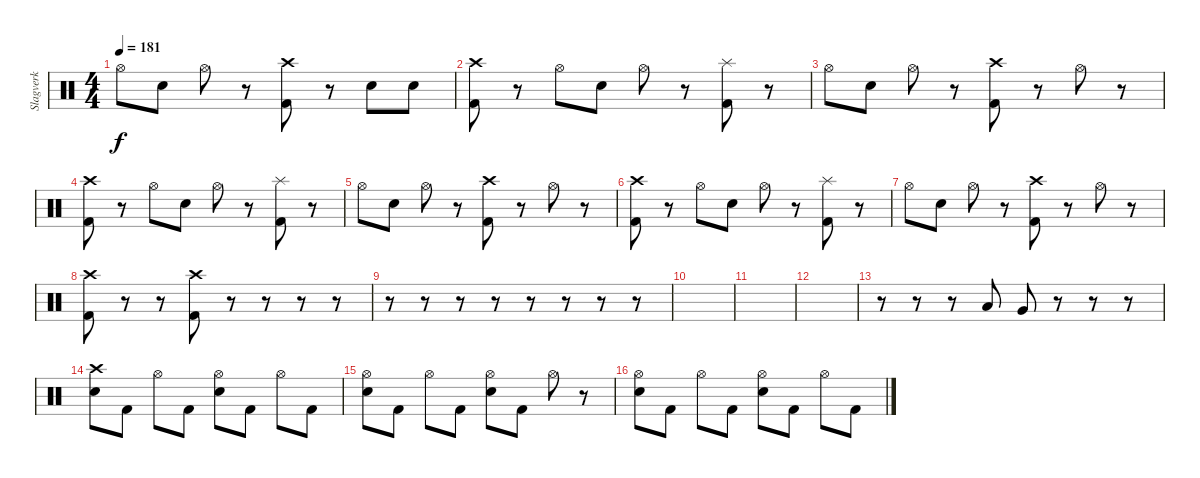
\track ("Slagverk" "Slagverk") {instrument percussion}
\staff {score}
\articulation defaults
\ts (4 4)
\tempo 181
\clef neutral
\ks c "Hi-Hat (open)".8{dy f} "Electric Snare (hit)".8 "Hi-Hat (open)".8
r.8 ("Crash high (hit)" "Kick (hit) 2").8 r.8 "Electric Snare (hit)".8 "Electric Snare (hit)".8 |
("Crash high (hit)" "Kick (hit) 2").8 r.8 "Hi-Hat (open)".8 "Electric Snare (hit)".8 "Hi-Hat (open)".8 r.8 ("Splash (hit)" "Kick (hit) 2").8 r.8 |
"Hi-Hat (open)".8 "Electric Snare (hit)".8 "Hi-Hat (open)".8 r.8 ("Crash high (hit)" "Kick (hit) 2").8 r.8 "Hi-Hat (open)".8 r.8 |
("Crash high (hit)" "Kick (hit) 2").8 r.8 "Hi-Hat (open)".8 "Electric Snare (hit)".8 "Hi-Hat (open)".8 r.8 ("Splash (hit)" "Kick (hit) 2").8 r.8 |
"Hi-Hat (open)".8 "Electric Snare (hit)".8 "Hi-Hat (open)".8 r.8 ("Crash high (hit)" "Kick (hit) 2").8 r.8 "Hi-Hat (open)".8 r.8 |
("Crash high (hit)" "Kick (hit) 2").8 r.8 "Hi-Hat (open)".8 "Electric Snare (hit)".8 "Hi-Hat (open)".8 r.8 ("Splash (hit)" "Kick (hit) 2").8 r.8 |
"Hi-Hat (open)".8 "Electric Snare (hit)".8 "Hi-Hat (open)".8 r.8 ("Crash high (hit)" "Kick (hit) 2").8 r.8 "Hi-Hat (open)".8 r.8 |
("Crash high (hit)" "Kick (hit) 2").8 r.8 r.8 ("Crash high (hit)" "Kick (hit) 2").8 r.8 r.8 r.8 r.8 |
r.8 r.8 r.8 r.8 r.8 r.8 r.8 r.8 |
|
|
|
r.8 r.8 r.8 "Low Tom (hit)".8 "Very Low Tom (hit)".8 r.8 r.8 r.8 |
("Crash high (hit)" "Electric Snare (hit)").8{volume 16 balance 8} "Kick (hit) 2".8 "Hi-Hat (open)".8 "Kick (hit) 2".8 ("Hi-Hat (open)" "Electric Snare (hit)").8 "Kick (hit) 2".8 "Hi-Hat (open)".8 "Kick (hit) 2".8 |
("Hi-Hat (open)" "Electric Snare (hit)").8 "Kick (hit) 2".8 "Hi-Hat (open)".8 "Kick (hit) 2".8 ("Hi-Hat (open)" "Electric Snare (hit)").8 "Kick (hit) 2".8 "Hi-Hat (open)".8 r.8 |
("Hi-Hat (open)" "Electric Snare (hit)").8{volume 16 balance 8} "Kick (hit) 2".8 "Hi-Hat (open)".8 "Kick (hit) 2".8 ("Hi-Hat (open)" "Electric Snare (hit)").8 "Kick (hit) 2".8 "Hi-Hat (open)".8 "Kick (hit) 2".8
